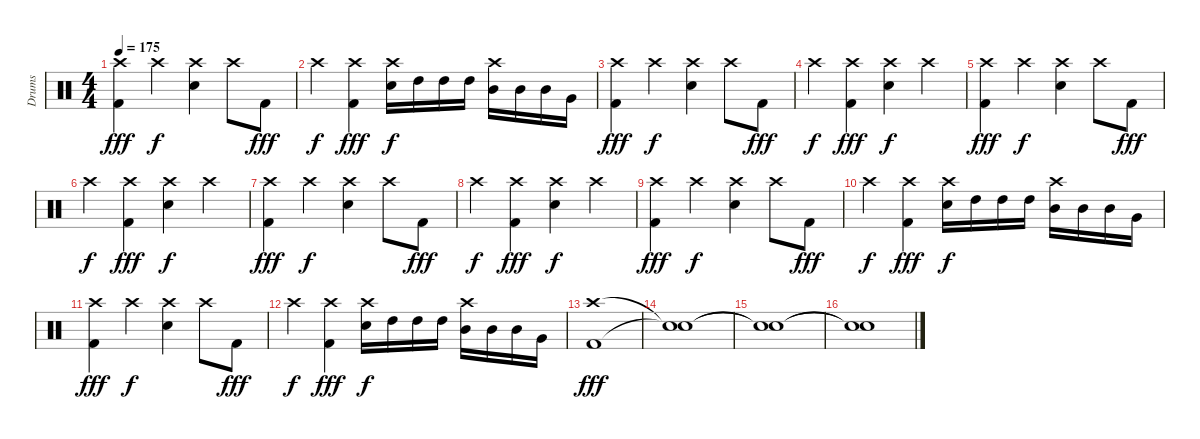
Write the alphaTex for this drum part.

\track ("Drums" "Drums") {instrument percussion}
\staff {score}
\articulation defaults
\ts (4 4)
\tempo 175
\clef neutral
\ks c
("Crash high (hit)" "Kick (hit) 2").4{dy fff} "Crash high (hit)".4{dy f} ("Crash high (hit)" "Electric Snare (hit)").4 "Crash high (hit)".8 "Kick (hit) 2".8{dy fff} |
"Crash high (hit)".4{dy f} ("Crash high (hit)" "Kick (hit) 2").4{dy fff} ("Crash high (hit)" "Electric Snare (hit)").16{dy f} "High Tom (hit)".16 "High Tom (hit)".16 "High Tom (hit)".16 ("Crash high (hit)" "Mid Tom (hit)").16 "Mid Tom (hit)".16 "Mid Tom (hit)".16 "Very Low Tom (hit)".16 |
("Crash high (hit)" "Kick (hit) 2").4{dy fff} "Crash high (hit)".4{dy f} ("Crash high (hit)" "Electric Snare (hit)").4 "Crash high (hit)".8 "Kick (hit) 2".8{dy fff} |
"Crash high (hit)".4{dy f} ("Crash high (hit)" "Kick (hit) 2").4{dy fff} ("Crash high (hit)" "Electric Snare (hit)").4{dy f} "Crash high (hit)".4 |
("Crash high (hit)" "Kick (hit) 2").4{dy fff} "Crash high (hit)".4{dy f} ("Crash high (hit)" "Electric Snare (hit)").4 "Crash high (hit)".8 "Kick (hit) 2".8{dy fff} |
"Crash high (hit)".4{dy f} ("Crash high (hit)" "Kick (hit) 2").4{dy fff} ("Crash high (hit)" "Electric Snare (hit)").4{dy f} "Crash high (hit)".4 |
("Crash high (hit)" "Kick (hit) 2").4{dy fff} "Crash high (hit)".4{dy f} ("Crash high (hit)" "Electric Snare (hit)").4 "Crash high (hit)".8 "Kick (hit) 2".8{dy fff} |
"Crash high (hit)".4{dy f} ("Crash high (hit)" "Kick (hit) 2").4{dy fff} ("Crash high (hit)" "Electric Snare (hit)").4{dy f} "Crash high (hit)".4 |
("Crash high (hit)" "Kick (hit) 2").4{dy fff} "Crash high (hit)".4{dy f} ("Crash high (hit)" "Electric Snare (hit)").4 "Crash high (hit)".8 "Kick (hit) 2".8{dy fff} |
"Crash high (hit)".4{dy f} ("Crash high (hit)" "Kick (hit) 2").4{dy fff} ("Crash high (hit)" "Electric Snare (hit)").16{dy f} "High Tom (hit)".16 "High Tom (hit)".16 "High Tom (hit)".16 ("Crash high (hit)" "Mid Tom (hit)").16 "Mid Tom (hit)".16 "Mid Tom (hit)".16 "Very Low Tom (hit)".16 |
("Crash high (hit)" "Kick (hit) 2").4{dy fff} "Crash high (hit)".4{dy f} ("Crash high (hit)" "Electric Snare (hit)").4 "Crash high (hit)".8 "Kick (hit) 2".8{dy fff} |
"Crash high (hit)".4{dy f} ("Crash high (hit)" "Kick (hit) 2").4{dy fff} ("Crash high (hit)" "Electric Snare (hit)").16{dy f} "High Tom (hit)".16 "High Tom (hit)".16 "High Tom (hit)".16 ("Crash high (hit)" "Mid Tom (hit)").16 "Mid Tom (hit)".16 "Mid Tom (hit)".16 "Very Low Tom (hit)".16 |
("Crash high (hit)" "Kick (hit) 2").1{dy fff} |
("Snare (hit)"{t} "Snare (hit)"{t}).1 |
("Snare (hit)"{t} "Snare (hit)"{t}).1 |
("Snare (hit)"{t} "Snare (hit)"{t}).1
